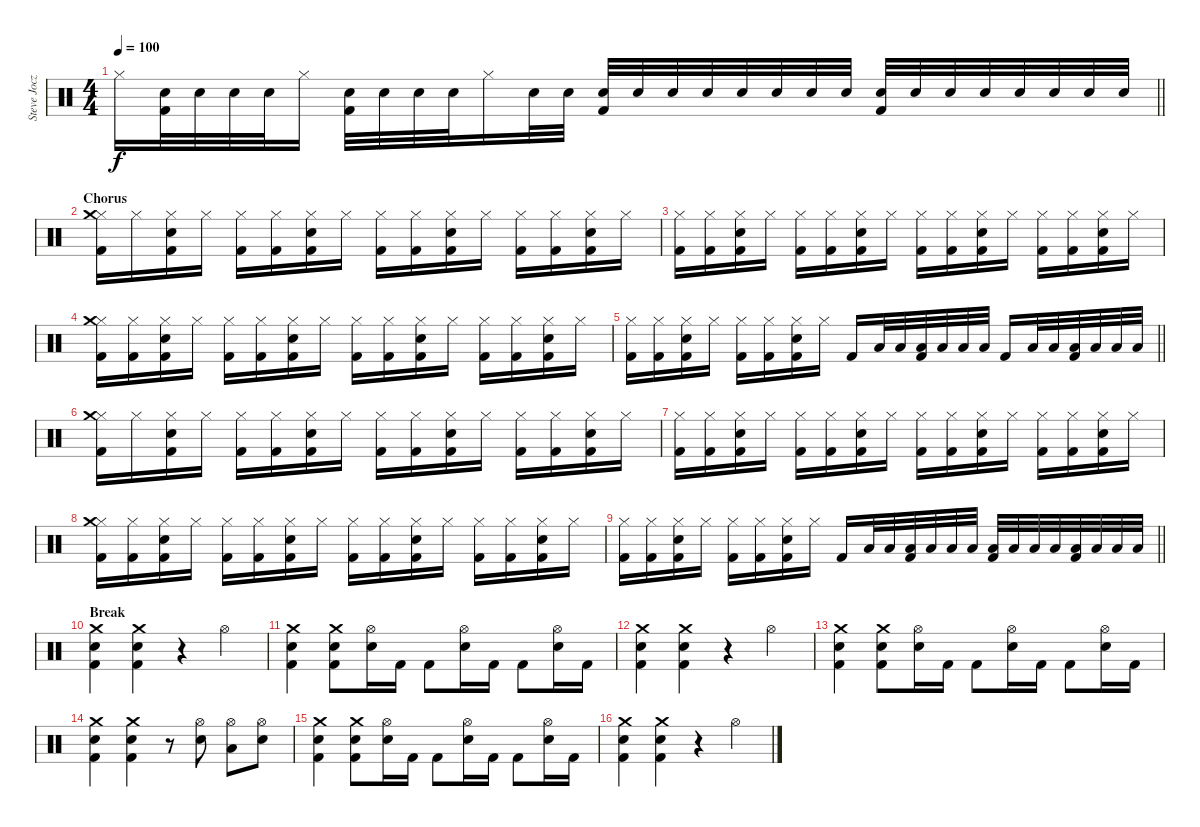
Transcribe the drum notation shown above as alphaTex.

\track ("Steve Jocz <Drums>" "Steve Jocz") {instrument percussion}
\staff {score}
\articulation defaults
\ts (4 4)
\tempo 100
\clef neutral
\barLineRight lightlight
\ks c "Hi-Hat (closed)".16{dy f}
("Snare (hit) 2" "Kick (hit) 2").32 "Snare (hit) 2".32 "Snare (hit) 2".32 "Snare (hit) 2".32 "Hi-Hat (closed)".16 ("Snare (hit) 2" "Kick (hit) 2").32 "Snare (hit) 2".32 "Snare (hit) 2".32 "Snare (hit) 2".32 "Hi-Hat (closed)".16 "Snare (hit) 2".32 "Snare (hit) 2".32 ("Snare (hit) 2" "Kick (hit) 2").32 "Snare (hit) 2".32 "Snare (hit) 2".32 "Snare (hit) 2".32 "Snare (hit) 2".32 "Snare (hit) 2".32 "Snare (hit) 2".32 "Snare (hit) 2".32 ("Snare (hit) 2" "Kick (hit) 2").32 "Snare (hit) 2".32 "Snare (hit) 2".32 "Snare (hit) 2".32 "Snare (hit) 2".32 "Snare (hit) 2".32 "Snare (hit) 2".32 "Snare (hit) 2".32 |
\section ("" "Chorus")
("Hi-Hat (closed)" "Crash medium (hit)" "Kick (hit) 2").16 "Hi-Hat (closed)".16 ("Hi-Hat (closed)" "Snare (hit) 2" "Kick (hit) 2").16 "Hi-Hat (closed)".16 ("Hi-Hat (closed)" "Kick (hit) 2").16 ("Hi-Hat (closed)" "Kick (hit) 2").16 ("Hi-Hat (closed)" "Snare (hit) 2" "Kick (hit) 2").16 "Hi-Hat (closed)".16 ("Hi-Hat (closed)" "Kick (hit) 2").16 ("Hi-Hat (closed)" "Kick (hit) 2").16 ("Hi-Hat (closed)" "Snare (hit) 2" "Kick (hit) 2").16 "Hi-Hat (closed)".16 ("Hi-Hat (closed)" "Kick (hit) 2").16 ("Hi-Hat (closed)" "Kick (hit) 2").16 ("Hi-Hat (closed)" "Snare (hit) 2" "Kick (hit) 2").16 "Hi-Hat (closed)".16 |
("Hi-Hat (closed)" "Kick (hit) 2").16 ("Hi-Hat (closed)" "Kick (hit) 2").16 ("Hi-Hat (closed)" "Snare (hit) 2" "Kick (hit) 2").16 "Hi-Hat (closed)".16 ("Hi-Hat (closed)" "Kick (hit) 2").16 ("Hi-Hat (closed)" "Kick (hit) 2").16 ("Hi-Hat (closed)" "Snare (hit) 2" "Kick (hit) 2").16 "Hi-Hat (closed)".16 ("Hi-Hat (closed)" "Kick (hit) 2").16 ("Hi-Hat (closed)" "Kick (hit) 2").16 ("Hi-Hat (closed)" "Snare (hit) 2" "Kick (hit) 2").16 "Hi-Hat (closed)".16 ("Hi-Hat (closed)" "Kick (hit) 2").16 ("Hi-Hat (closed)" "Kick (hit) 2").16 ("Hi-Hat (closed)" "Snare (hit) 2" "Kick (hit) 2").16 "Hi-Hat (closed)".16 |
("Hi-Hat (closed)" "Crash medium (hit)" "Kick (hit) 2").16 ("Hi-Hat (closed)" "Kick (hit) 2").16 ("Hi-Hat (closed)" "Snare (hit) 2" "Kick (hit) 2").16 "Hi-Hat (closed)".16 ("Hi-Hat (closed)" "Kick (hit) 2").16 ("Hi-Hat (closed)" "Kick (hit) 2").16 ("Hi-Hat (closed)" "Snare (hit) 2" "Kick (hit) 2").16 "Hi-Hat (closed)".16 ("Hi-Hat (closed)" "Kick (hit) 2").16 ("Hi-Hat (closed)" "Kick (hit) 2").16 ("Hi-Hat (closed)" "Snare (hit) 2" "Kick (hit) 2").16 "Hi-Hat (closed)".16 ("Hi-Hat (closed)" "Kick (hit) 2").16 ("Hi-Hat (closed)" "Kick (hit) 2").16 ("Hi-Hat (closed)" "Snare (hit) 2" "Kick (hit) 2").16 "Hi-Hat (closed)".16 |
\barLineRight lightlight
("Hi-Hat (closed)" "Kick (hit) 2").16 ("Hi-Hat (closed)" "Kick (hit) 2").16 ("Hi-Hat (closed)" "Snare (hit) 2" "Kick (hit) 2").16 "Hi-Hat (closed)".16 ("Hi-Hat (closed)" "Kick (hit) 2").16 ("Hi-Hat (closed)" "Kick (hit) 2").16 ("Hi-Hat (closed)" "Snare (hit) 2" "Kick (hit) 2").16 "Hi-Hat (closed)".16 "Kick (hit) 2".16 "Low Tom (hit)".32 "Low Tom (hit)".32 ("Low Tom (hit)" "Kick (hit) 2").32 "Low Tom (hit)".32 "Low Tom (hit)".32 "Low Tom (hit)".32 "Kick (hit) 2".16 "Low Tom (hit)".32 "Low Tom (hit)".32 ("Low Tom (hit)" "Kick (hit) 2").32 "Low Tom (hit)".32 "Low Tom (hit)".32 "Low Tom (hit)".32 |
("Hi-Hat (closed)" "Crash medium (hit)" "Kick (hit) 2").16 "Hi-Hat (closed)".16 ("Hi-Hat (closed)" "Snare (hit) 2" "Kick (hit) 2").16 "Hi-Hat (closed)".16 ("Hi-Hat (closed)" "Kick (hit) 2").16 ("Hi-Hat (closed)" "Kick (hit) 2").16 ("Hi-Hat (closed)" "Snare (hit) 2" "Kick (hit) 2").16 "Hi-Hat (closed)".16 ("Hi-Hat (closed)" "Kick (hit) 2").16 ("Hi-Hat (closed)" "Kick (hit) 2").16 ("Hi-Hat (closed)" "Snare (hit) 2" "Kick (hit) 2").16 "Hi-Hat (closed)".16 ("Hi-Hat (closed)" "Kick (hit) 2").16 ("Hi-Hat (closed)" "Kick (hit) 2").16 ("Hi-Hat (closed)" "Snare (hit) 2" "Kick (hit) 2").16 "Hi-Hat (closed)".16 |
("Hi-Hat (closed)" "Kick (hit) 2").16 ("Hi-Hat (closed)" "Kick (hit) 2").16 ("Hi-Hat (closed)" "Snare (hit) 2" "Kick (hit) 2").16 "Hi-Hat (closed)".16 ("Hi-Hat (closed)" "Kick (hit) 2").16 ("Hi-Hat (closed)" "Kick (hit) 2").16 ("Hi-Hat (closed)" "Snare (hit) 2" "Kick (hit) 2").16 "Hi-Hat (closed)".16 ("Hi-Hat (closed)" "Kick (hit) 2").16 ("Hi-Hat (closed)" "Kick (hit) 2").16 ("Hi-Hat (closed)" "Snare (hit) 2" "Kick (hit) 2").16 "Hi-Hat (closed)".16 ("Hi-Hat (closed)" "Kick (hit) 2").16 ("Hi-Hat (closed)" "Kick (hit) 2").16 ("Hi-Hat (closed)" "Snare (hit) 2" "Kick (hit) 2").16 "Hi-Hat (closed)".16 |
("Hi-Hat (closed)" "Crash medium (hit)" "Kick (hit) 2").16 ("Hi-Hat (closed)" "Kick (hit) 2").16 ("Hi-Hat (closed)" "Snare (hit) 2" "Kick (hit) 2").16 "Hi-Hat (closed)".16 ("Hi-Hat (closed)" "Kick (hit) 2").16 ("Hi-Hat (closed)" "Kick (hit) 2").16 ("Hi-Hat (closed)" "Snare (hit) 2" "Kick (hit) 2").16 "Hi-Hat (closed)".16 ("Hi-Hat (closed)" "Kick (hit) 2").16 ("Hi-Hat (closed)" "Kick (hit) 2").16 ("Hi-Hat (closed)" "Snare (hit) 2" "Kick (hit) 2").16 "Hi-Hat (closed)".16 ("Hi-Hat (closed)" "Kick (hit) 2").16 ("Hi-Hat (closed)" "Kick (hit) 2").16 ("Hi-Hat (closed)" "Snare (hit) 2" "Kick (hit) 2").16 "Hi-Hat (closed)".16 |
\barLineRight lightlight
("Hi-Hat (closed)" "Kick (hit) 2").16 ("Hi-Hat (closed)" "Kick (hit) 2").16 ("Hi-Hat (closed)" "Snare (hit) 2" "Kick (hit) 2").16 "Hi-Hat (closed)".16 ("Hi-Hat (closed)" "Kick (hit) 2").16 ("Hi-Hat (closed)" "Kick (hit) 2").16 ("Hi-Hat (closed)" "Snare (hit) 2" "Kick (hit) 2").16 "Hi-Hat (closed)".16 "Kick (hit) 2".16 "Low Tom (hit)".32 "Low Tom (hit)".32 ("Low Tom (hit)" "Kick (hit) 2").32 "Low Tom (hit)".32 "Low Tom (hit)".32 "Low Tom (hit)".32 ("Low Floor Tom (hit)" "Kick (hit) 2").32 "Low Floor Tom (hit)".32 "Low Floor Tom (hit)".32 "Low Floor Tom (hit)".32 ("Low Floor Tom (hit)" "Kick (hit) 2").32 "Low Floor Tom (hit)".32 "Low Floor Tom (hit)".32 "Low Floor Tom (hit)".32 |
\section ("" "Break")
("Crash medium (hit)" "Snare (hit) 2" "Kick (hit) 2").4 ("Crash medium (hit)" "Snare (hit) 2" "Kick (hit) 2").4 r.4 "Hi-Hat (open)".4 |
("Crash medium (hit)" "Snare (hit) 2" "Kick (hit) 2").4 ("Crash medium (hit)" "Snare (hit) 2" "Kick (hit) 2").8 ("Hi-Hat (open)" "Snare (hit) 2").16 "Kick (hit) 2".16 "Kick (hit) 2".8 ("Hi-Hat (open)" "Snare (hit) 2").16 "Kick (hit) 2".16 "Kick (hit) 2".8 ("Hi-Hat (open)" "Snare (hit) 2").16 "Kick (hit) 2".16 |
("Crash medium (hit)" "Snare (hit) 2" "Kick (hit) 2").4 ("Crash medium (hit)" "Snare (hit) 2" "Kick (hit) 2").4 r.4 "Hi-Hat (open)".4 |
("Crash medium (hit)" "Snare (hit) 2" "Kick (hit) 2").4 ("Crash medium (hit)" "Snare (hit) 2" "Kick (hit) 2").8 ("Hi-Hat (open)" "Snare (hit) 2").16 "Kick (hit) 2".16 "Kick (hit) 2".8 ("Hi-Hat (open)" "Snare (hit) 2").16 "Kick (hit) 2".16 "Kick (hit) 2".8 ("Hi-Hat (open)" "Snare (hit) 2").16 "Kick (hit) 2".16 |
("Crash medium (hit)" "Snare (hit) 2" "Kick (hit) 2").4 ("Crash medium (hit)" "Snare (hit) 2" "Kick (hit) 2").4 r.8 ("Hi-Hat (open)" "Snare (hit) 2").8 ("Hi-Hat (open)" "Low Tom (hit)").8 ("Hi-Hat (open)" "Snare (hit) 2").8 |
("Crash medium (hit)" "Snare (hit) 2" "Kick (hit) 2").4 ("Crash medium (hit)" "Snare (hit) 2" "Kick (hit) 2").8 ("Hi-Hat (open)" "Snare (hit) 2").16 "Kick (hit) 2".16 "Kick (hit) 2".8 ("Hi-Hat (open)" "Snare (hit) 2").16 "Kick (hit) 2".16 "Kick (hit) 2".8 ("Hi-Hat (open)" "Snare (hit) 2").16 "Kick (hit) 2".16 |
("Crash medium (hit)" "Snare (hit) 2" "Kick (hit) 2").4 ("Crash medium (hit)" "Snare (hit) 2" "Kick (hit) 2").4 r.4 "Hi-Hat (open)".4
